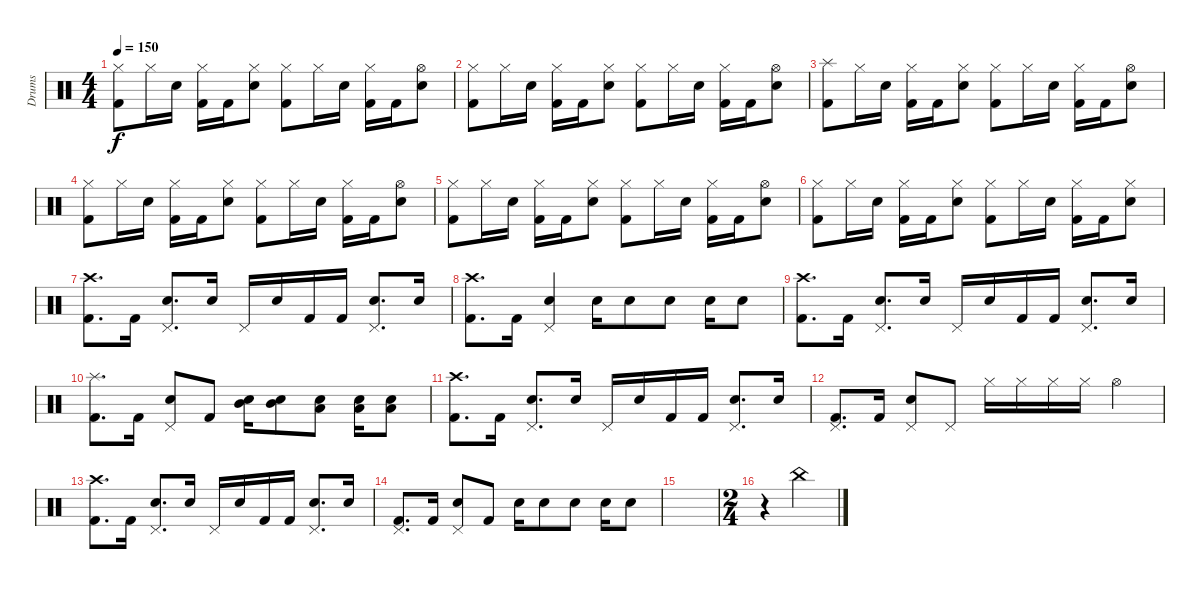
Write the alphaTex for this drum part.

\track ("Drums" "Drums") {instrument percussion}
\staff {score}
\articulation defaults
\ts (4 4)
\tempo 150
\clef neutral
\ks c
("Kick (hit) 2" "Hi-Hat (closed)").8{dy f} "Hi-Hat (closed)".16 "Electric Snare (hit)".16 ("Kick (hit) 2" "Hi-Hat (closed)").16 "Kick (hit) 2".16 ("Electric Snare (hit)" "Hi-Hat (closed)").8 ("Kick (hit) 2" "Hi-Hat (closed)").8 "Hi-Hat (closed)".16 "Electric Snare (hit)".16 ("Kick (hit) 2" "Hi-Hat (closed)").16 "Kick (hit) 2".16 ("Electric Snare (hit)" "Hi-Hat (open)").8 |
("Kick (hit) 2" "Hi-Hat (closed)").8 "Hi-Hat (closed)".16 "Electric Snare (hit)".16 ("Kick (hit) 2" "Hi-Hat (closed)").16 "Kick (hit) 2".16 ("Electric Snare (hit)" "Hi-Hat (closed)").8 ("Kick (hit) 2" "Hi-Hat (closed)").8 "Hi-Hat (closed)".16 "Electric Snare (hit)".16 ("Kick (hit) 2" "Hi-Hat (closed)").16 "Kick (hit) 2".16 ("Electric Snare (hit)" "Hi-Hat (open)").8 |
("Kick (hit) 2" "Splash (hit)").8 "Hi-Hat (closed)".16 "Electric Snare (hit)".16 ("Kick (hit) 2" "Hi-Hat (closed)").16 "Kick (hit) 2".16 ("Electric Snare (hit)" "Hi-Hat (closed)").8 ("Kick (hit) 2" "Hi-Hat (closed)").8 "Hi-Hat (closed)".16 "Electric Snare (hit)".16 ("Kick (hit) 2" "Hi-Hat (closed)").16 "Kick (hit) 2".16 ("Electric Snare (hit)" "Hi-Hat (open)").8 |
("Kick (hit) 2" "Hi-Hat (closed)").8 "Hi-Hat (closed)".16 "Electric Snare (hit)".16 ("Kick (hit) 2" "Hi-Hat (closed)").16 "Kick (hit) 2".16 ("Electric Snare (hit)" "Hi-Hat (closed)").8 ("Kick (hit) 2" "Hi-Hat (closed)").8 "Hi-Hat (closed)".16 "Electric Snare (hit)".16 ("Kick (hit) 2" "Hi-Hat (closed)").16 "Kick (hit) 2".16 ("Electric Snare (hit)" "Hi-Hat (open)").8 |
("Kick (hit) 2" "Hi-Hat (closed)").8 "Hi-Hat (closed)".16 "Electric Snare (hit)".16 ("Kick (hit) 2" "Hi-Hat (closed)").16 "Kick (hit) 2".16 ("Electric Snare (hit)" "Hi-Hat (closed)").8 ("Kick (hit) 2" "Hi-Hat (closed)").8 "Hi-Hat (closed)".16 "Electric Snare (hit)".16 ("Kick (hit) 2" "Hi-Hat (closed)").16 "Kick (hit) 2".16 ("Electric Snare (hit)" "Hi-Hat (open)").8 |
("Kick (hit) 2" "Hi-Hat (closed)").8 "Hi-Hat (closed)".16 "Electric Snare (hit)".16 ("Kick (hit) 2" "Hi-Hat (closed)").16 "Kick (hit) 2".16 ("Electric Snare (hit)" "Hi-Hat (closed)").8 ("Kick (hit) 2" "Hi-Hat (closed)").8 "Hi-Hat (closed)".16 "Electric Snare (hit)".16 ("Kick (hit) 2" "Hi-Hat (closed)").16 "Kick (hit) 2".16 ("Electric Snare (hit)" "Hi-Hat (closed)").8 |
("Kick (hit) 2" "Crash high (hit)").8{d} "Kick (hit) 2".16 ("Electric Snare (hit)" "Pedal Hi-Hat (hit)").8{d} "Electric Snare (hit)".16 "Pedal Hi-Hat (hit)".16 "Electric Snare (hit)".16 "Kick (hit) 2".16 "Kick (hit) 2".16 ("Electric Snare (hit)" "Pedal Hi-Hat (hit)").8{d} "Electric Snare (hit)".16 |
("Kick (hit) 2" "Crash high (hit)").8{d} "Kick (hit) 2".16 ("Electric Snare (hit)" "Pedal Hi-Hat (hit)").4 "Electric Snare (hit)".16 "Electric Snare (hit)".8 "Electric Snare (hit)".8 "Electric Snare (hit)".16 "Electric Snare (hit)".8 |
("Kick (hit) 2" "Crash high (hit)").8{d} "Kick (hit) 2".16 ("Electric Snare (hit)" "Pedal Hi-Hat (hit)").8{d} "Electric Snare (hit)".16 "Pedal Hi-Hat (hit)".16 "Electric Snare (hit)".16 "Kick (hit) 2".16 "Kick (hit) 2".16 ("Electric Snare (hit)" "Pedal Hi-Hat (hit)").8{d} "Electric Snare (hit)".16 |
("Kick (hit) 2" "Splash (hit)").8{d} "Kick (hit) 2".16 ("Electric Snare (hit)" "Pedal Hi-Hat (hit)").8 "Kick (hit) 2".8 ("Electric Snare (hit)" "Mid Tom (hit)").16 ("Electric Snare (hit)" "Mid Tom (hit)").8 ("Electric Snare (hit)" "Low Tom (hit)").8 ("Electric Snare (hit)" "Low Floor Tom (hit)").16 ("Electric Snare (hit)" "Low Floor Tom (hit)").8 |
("Kick (hit) 2" "Crash high (hit)").8{d} "Kick (hit) 2".16 ("Electric Snare (hit)" "Pedal Hi-Hat (hit)").8{d} "Electric Snare (hit)".16 "Pedal Hi-Hat (hit)".16 "Electric Snare (hit)".16 "Kick (hit) 2".16 "Kick (hit) 2".16 ("Electric Snare (hit)" "Pedal Hi-Hat (hit)").8{d} "Electric Snare (hit)".16 |
("Kick (hit) 2" "Pedal Hi-Hat (hit)").8{d} "Kick (hit) 2".16 ("Electric Snare (hit)" "Pedal Hi-Hat (hit)").8 "Pedal Hi-Hat (hit)".8 "Hi-Hat (closed)".16 "Hi-Hat (closed)".16 "Hi-Hat (closed)".16 "Hi-Hat (closed)".16 "Hi-Hat (open)".4 |
("Kick (hit) 2" "Crash high (hit)").8{d} "Kick (hit) 2".16 ("Electric Snare (hit)" "Pedal Hi-Hat (hit)").8{d} "Electric Snare (hit)".16 "Pedal Hi-Hat (hit)".16 "Electric Snare (hit)".16 "Kick (hit) 2".16 "Kick (hit) 2".16 ("Electric Snare (hit)" "Pedal Hi-Hat (hit)").8{d} "Electric Snare (hit)".16 |
("Kick (hit) 2" "Pedal Hi-Hat (hit)").8{d} "Kick (hit) 2".16 ("Electric Snare (hit)" "Pedal Hi-Hat (hit)").8 "Kick (hit) 2".8 "Electric Snare (hit)".16 "Electric Snare (hit)".8 "Electric Snare (hit)".8 "Electric Snare (hit)".16 "Electric Snare (hit)".8 |
|
\ts (2 4)
r.4 "China (hit)".4
